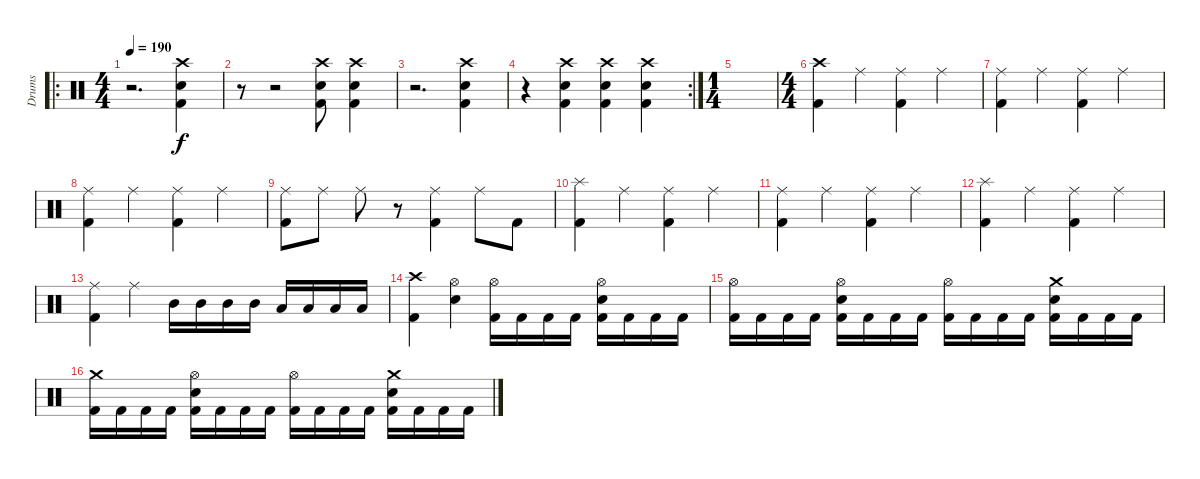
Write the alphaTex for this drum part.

\track ("Drums" "Drums") {instrument percussion}
\staff {score}
\articulation defaults
\ro
\ts (4 4)
\tempo 190
\clef neutral
\ks c
r.2{d dy f} ("Crash high (hit)" "Electric Snare (hit)" "Kick (hit) 2").4 |
r.8 r.2 ("Crash high (hit)" "Electric Snare (hit)" "Kick (hit) 2").8 ("Crash high (hit)" "Electric Snare (hit)" "Kick (hit) 2").4 |
r.2{d} ("Crash high (hit)" "Electric Snare (hit)" "Kick (hit) 2").4 |
\rc 2
r.4 ("Crash high (hit)" "Electric Snare (hit)" "Kick (hit) 2").4 ("Crash high (hit)" "Electric Snare (hit)" "Kick (hit) 2").4 ("Crash high (hit)" "Electric Snare (hit)" "Kick (hit) 2").4 |
\ts (1 4)
|
\ts (4 4)
("Crash high (hit)" "Kick (hit) 2").4 "Ride (middle)".4 ("Ride (middle)" "Kick (hit) 2").4 "Ride (middle)".4 |
("Ride (middle)" "Kick (hit) 2").4 "Ride (middle)".4 ("Ride (middle)" "Kick (hit) 2").4 "Ride (middle)".4 |
("Ride (middle)" "Kick (hit) 2").4 "Ride (middle)".4 ("Ride (middle)" "Kick (hit) 2").4 "Ride (middle)".4 |
("Ride (middle)" "Kick (hit) 2").8 "Ride (middle)".8 "Ride (middle)".8 r.8 ("Ride (middle)" "Kick (hit) 2").4 "Ride (middle)".8 "Kick (hit) 2".8 |
("Splash (hit)" "Kick (hit) 2").4 "Ride (middle)".4 ("Ride (middle)" "Kick (hit) 2").4 "Ride (middle)".4 |
("Ride (middle)" "Kick (hit) 2").4 "Ride (middle)".4 ("Ride (middle)" "Kick (hit) 2").4 "Ride (middle)".4 |
("Splash (hit)" "Kick (hit) 2").4 "Ride (middle)".4 ("Ride (middle)" "Kick (hit) 2").4 "Ride (middle)".4 |
("Ride (middle)" "Kick (hit) 2").4 "Ride (middle)".4 "Mid Tom (hit)".16 "Mid Tom (hit)".16 "Mid Tom (hit)".16 "Mid Tom (hit)".16 "Low Tom (hit)".16 "Low Tom (hit)".16 "Low Tom (hit)".16 "Low Tom (hit)".16 |
("Crash high (hit)" "Kick (hit) 2").4 ("Hi-Hat (open)" "Electric Snare (hit)").4 ("Hi-Hat (open)" "Kick (hit) 2").16 "Kick (hit) 2".16 "Kick (hit) 2".16 "Kick (hit) 2".16 ("Hi-Hat (open)" "Electric Snare (hit)" "Kick (hit) 2").16 "Kick (hit) 2".16 "Kick (hit) 2".16 "Kick (hit) 2".16 |
("Hi-Hat (open)" "Kick (hit) 2").16 "Kick (hit) 2".16 "Kick (hit) 2".16 "Kick (hit) 2".16 ("Hi-Hat (open)" "Electric Snare (hit)" "Kick (hit) 2").16 "Kick (hit) 2".16 "Kick (hit) 2".16 "Kick (hit) 2".16 ("Hi-Hat (open)" "Kick (hit) 2").16 "Kick (hit) 2".16 "Kick (hit) 2".16 "Kick (hit) 2".16 ("Crash medium (hit)" "Electric Snare (hit)" "Kick (hit) 2").16 "Kick (hit) 2".16 "Kick (hit) 2".16 "Kick (hit) 2".16 |
("Crash medium (hit)" "Kick (hit) 2").16 "Kick (hit) 2".16 "Kick (hit) 2".16 "Kick (hit) 2".16 ("Hi-Hat (open)" "Electric Snare (hit)" "Kick (hit) 2").16 "Kick (hit) 2".16 "Kick (hit) 2".16 "Kick (hit) 2".16 ("Hi-Hat (open)" "Kick (hit) 2").16 "Kick (hit) 2".16 "Kick (hit) 2".16 "Kick (hit) 2".16 ("Crash medium (hit)" "Electric Snare (hit)" "Kick (hit) 2").16 "Kick (hit) 2".16 "Kick (hit) 2".16 "Kick (hit) 2".16
